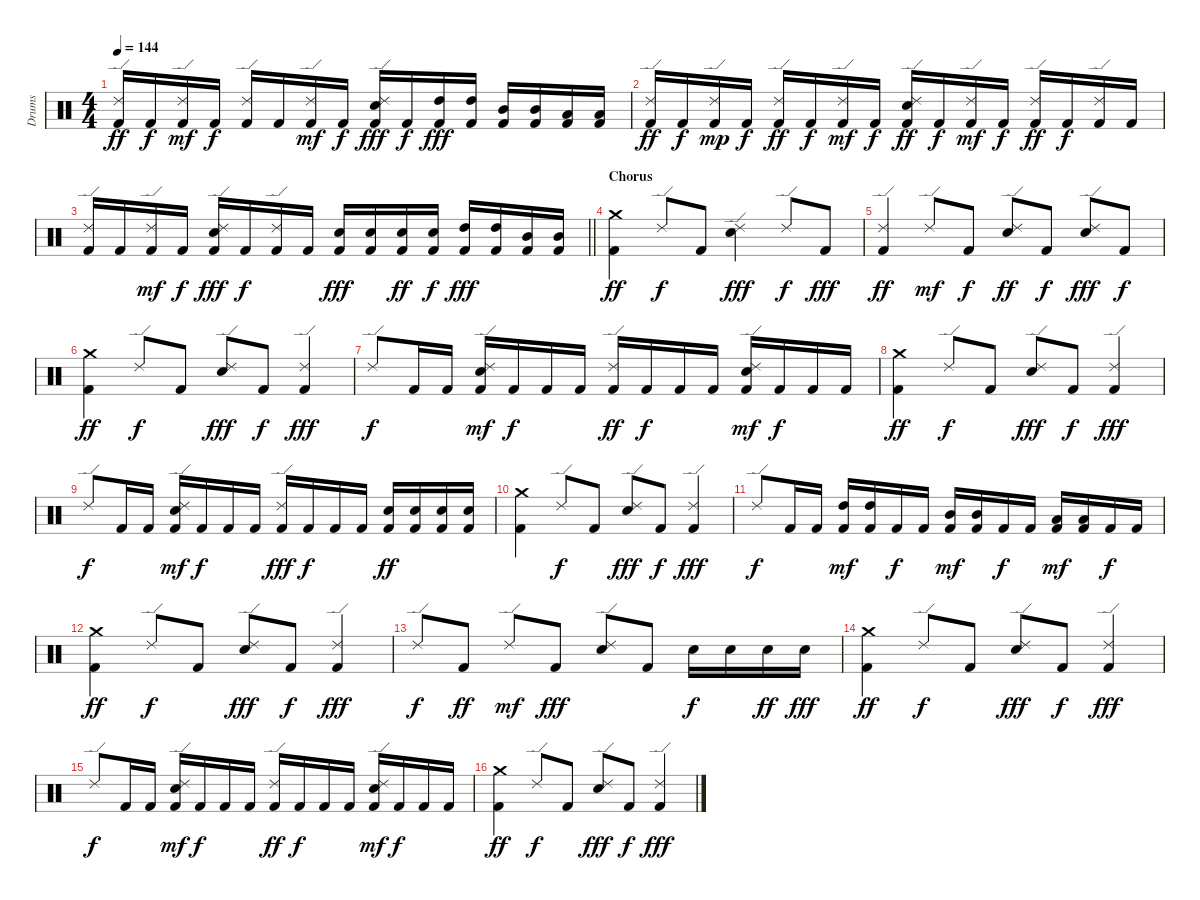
\track ("Drums" "Drums") {instrument percussion}
\staff {score}
\articulation defaults
\ts (4 4)
\tempo 144
\clef neutral
\ks c
("Ride (edge) 2" "Kick (hit) 2").16{dy ff} "Kick (hit) 2".16{dy f} ("Ride (edge) 2" "Kick (hit) 2").16{dy mf} "Kick (hit) 2".16{dy f} ("Ride (edge) 2" "Kick (hit) 2").16 "Kick (hit) 2".16 ("Ride (edge) 2" "Kick (hit) 2").16{dy mf} "Kick (hit) 2".16{dy f} ("Ride (edge) 2" "Electric Snare (hit)" "Kick (hit) 2").16{dy fff} "Kick (hit) 2".16{dy f} ("High Tom (hit)" "Kick (hit) 2").16{dy fff} ("High Tom (hit)" "Kick (hit) 2").16 ("Mid Tom (hit)" "Kick (hit) 2").16 ("Mid Tom (hit)" "Kick (hit) 2").16 ("Low Tom (hit)" "Kick (hit) 2").16 ("Low Tom (hit)" "Kick (hit) 2").16 |
("Ride (edge) 2" "Kick (hit) 2").16{dy ff} "Kick (hit) 2".16{dy f} ("Ride (edge) 2" "Kick (hit) 2").16{dy mp} "Kick (hit) 2".16{dy f} ("Ride (edge) 2" "Kick (hit) 2").16{dy ff} "Kick (hit) 2".16{dy f} ("Ride (edge) 2" "Kick (hit) 2").16{dy mf} "Kick (hit) 2".16{dy f} ("Ride (edge) 2" "Electric Snare (hit)" "Kick (hit) 2").16{dy ff} "Kick (hit) 2".16{dy f} ("Ride (edge) 2" "Kick (hit) 2").16{dy mf} "Kick (hit) 2".16{dy f} ("Ride (edge) 2" "Kick (hit) 2").16{dy ff} "Kick (hit) 2".16{dy f} ("Ride (edge) 2" "Kick (hit) 2").16 "Kick (hit) 2".16 |
\barLineRight lightlight
("Ride (edge) 2" "Kick (hit) 2").16 "Kick (hit) 2".16 ("Ride (edge) 2" "Kick (hit) 2").16{dy mf} "Kick (hit) 2".16{dy f} ("Ride (edge) 2" "Electric Snare (hit)" "Kick (hit) 2").16{dy fff} "Kick (hit) 2".16{dy f} ("Ride (edge) 2" "Kick (hit) 2").16 "Kick (hit) 2".16 ("Electric Snare (hit)" "Kick (hit) 2").16{dy fff} ("Electric Snare (hit)" "Kick (hit) 2").16 ("Electric Snare (hit)" "Kick (hit) 2").16{dy ff} ("Electric Snare (hit)" "Kick (hit) 2").16{dy f} ("High Tom (hit)" "Kick (hit) 2").16{dy fff} ("High Tom (hit)" "Kick (hit) 2").16 ("Mid Tom (hit)" "Kick (hit) 2").16 ("Mid Tom (hit)" "Kick (hit) 2").16 |
\section ("" "Chorus")
("Crash medium (hit)" "Kick (hit) 2").4{dy ff} "Ride (edge) 2".8{dy f} "Kick (hit) 2".8 ("Ride (edge) 2" "Electric Snare (hit)").4{dy fff} "Ride (edge) 2".8{dy f} "Kick (hit) 2".8{dy fff} |
("Ride (edge) 2" "Kick (hit) 2").4{dy ff} "Ride (edge) 2".8{dy mf} "Kick (hit) 2".8{dy f} ("Ride (edge) 2" "Electric Snare (hit)").8{dy ff} "Kick (hit) 2".8{dy f} ("Ride (edge) 2" "Electric Snare (hit)").8{dy fff} "Kick (hit) 2".8{dy f} |
("Crash medium (hit)" "Kick (hit) 2").4{dy ff} "Ride (edge) 2".8{dy f} "Kick (hit) 2".8 ("Ride (edge) 2" "Electric Snare (hit)").8{dy fff} "Kick (hit) 2".8{dy f} ("Ride (edge) 2" "Kick (hit) 2").4{dy fff} |
"Ride (edge) 2".8{dy f} "Kick (hit) 2".16 "Kick (hit) 2".16 ("Ride (edge) 2" "Electric Snare (hit)" "Kick (hit) 2").16{dy mf} "Kick (hit) 2".16{dy f} "Kick (hit) 2".16 "Kick (hit) 2".16 ("Ride (edge) 2" "Kick (hit) 2").16{dy ff} "Kick (hit) 2".16{dy f} "Kick (hit) 2".16 "Kick (hit) 2".16 ("Ride (edge) 2" "Electric Snare (hit)" "Kick (hit) 2").16{dy mf} "Kick (hit) 2".16{dy f} "Kick (hit) 2".16 "Kick (hit) 2".16 |
("Crash medium (hit)" "Kick (hit) 2").4{dy ff} "Ride (edge) 2".8{dy f} "Kick (hit) 2".8 ("Ride (edge) 2" "Electric Snare (hit)").8{dy fff} "Kick (hit) 2".8{dy f} ("Ride (edge) 2" "Kick (hit) 2").4{dy fff} |
"Ride (edge) 2".8{dy f} "Kick (hit) 2".16 "Kick (hit) 2".16 ("Ride (edge) 2" "Electric Snare (hit)" "Kick (hit) 2").16{dy mf} "Kick (hit) 2".16{dy f} "Kick (hit) 2".16 "Kick (hit) 2".16 ("Ride (edge) 2" "Kick (hit) 2").16{dy fff} "Kick (hit) 2".16{dy f} "Kick (hit) 2".16 "Kick (hit) 2".16 ("Electric Snare (hit)" "Kick (hit) 2").16{dy ff} ("Electric Snare (hit)" "Kick (hit) 2").16 ("Electric Snare (hit)" "Kick (hit) 2").16 ("Electric Snare (hit)" "Kick (hit) 2").16 |
("Crash medium (hit)" "Kick (hit) 2").4 "Ride (edge) 2".8{dy f} "Kick (hit) 2".8 ("Ride (edge) 2" "Electric Snare (hit)").8{dy fff} "Kick (hit) 2".8{dy f} ("Ride (edge) 2" "Kick (hit) 2").4{dy fff} |
"Ride (edge) 2".8{dy f} "Kick (hit) 2".16 "Kick (hit) 2".16 ("High Tom (hit)" "Kick (hit) 2").16{dy mf} ("High Tom (hit)" "Kick (hit) 2").16 "Kick (hit) 2".16{dy f} "Kick (hit) 2".16 ("Mid Tom (hit)" "Kick (hit) 2").16{dy mf} ("Mid Tom (hit)" "Kick (hit) 2").16 "Kick (hit) 2".16{dy f} "Kick (hit) 2".16 ("Low Tom (hit)" "Kick (hit) 2").16{dy mf} ("Low Tom (hit)" "Kick (hit) 2").16 "Kick (hit) 2".16{dy f} "Kick (hit) 2".16 |
("Crash medium (hit)" "Kick (hit) 2").4{dy ff} "Ride (edge) 2".8{dy f} "Kick (hit) 2".8 ("Ride (edge) 2" "Electric Snare (hit)").8{dy fff} "Kick (hit) 2".8{dy f} ("Ride (edge) 2" "Kick (hit) 2").4{dy fff} |
"Ride (edge) 2".8{dy f} "Kick (hit) 2".8{dy ff} "Ride (edge) 2".8{dy mf} "Kick (hit) 2".8{dy fff} ("Ride (edge) 2" "Electric Snare (hit)").8 "Kick (hit) 2".8 "Electric Snare (hit)".16{dy f} "Electric Snare (hit)".16 "Electric Snare (hit)".16{dy ff} "Electric Snare (hit)".16{dy fff} |
("Crash medium (hit)" "Kick (hit) 2").4{dy ff} "Ride (edge) 2".8{dy f} "Kick (hit) 2".8 ("Ride (edge) 2" "Electric Snare (hit)").8{dy fff} "Kick (hit) 2".8{dy f} ("Ride (edge) 2" "Kick (hit) 2").4{dy fff} |
"Ride (edge) 2".8{dy f} "Kick (hit) 2".16 "Kick (hit) 2".16 ("Ride (edge) 2" "Electric Snare (hit)" "Kick (hit) 2").16{dy mf} "Kick (hit) 2".16{dy f} "Kick (hit) 2".16 "Kick (hit) 2".16 ("Ride (edge) 2" "Kick (hit) 2").16{dy ff} "Kick (hit) 2".16{dy f} "Kick (hit) 2".16 "Kick (hit) 2".16 ("Ride (edge) 2" "Electric Snare (hit)" "Kick (hit) 2").16{dy mf} "Kick (hit) 2".16{dy f} "Kick (hit) 2".16 "Kick (hit) 2".16 |
("Crash medium (hit)" "Kick (hit) 2").4{dy ff} "Ride (edge) 2".8{dy f} "Kick (hit) 2".8 ("Ride (edge) 2" "Electric Snare (hit)").8{dy fff} "Kick (hit) 2".8{dy f} ("Ride (edge) 2" "Kick (hit) 2").4{dy fff}
